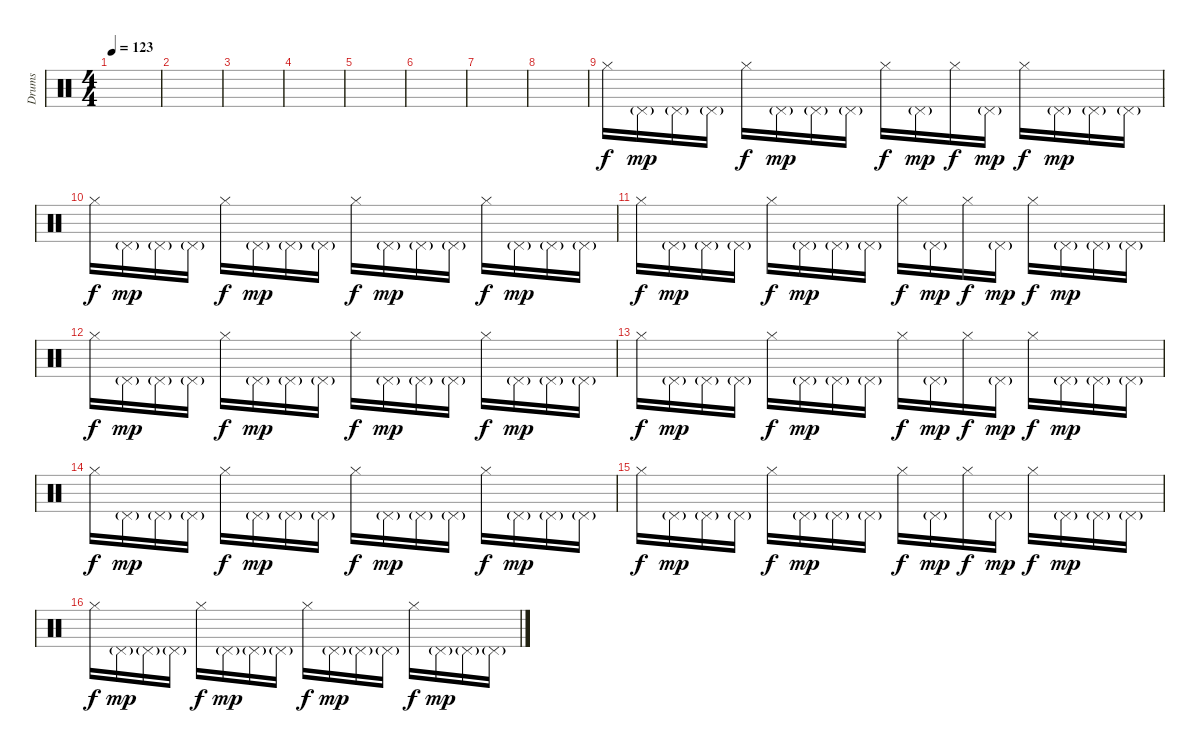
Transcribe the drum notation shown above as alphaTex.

\track ("Drums" "Drums") {instrument percussion}
\staff {score}
\articulation defaults
\ts (4 4)
\tempo 123
\clef neutral
\ks c
|
|
|
|
|
|
|
|
"Hi-Hat (closed)".16{dy f} "Pedal Hi-Hat (hit)"{g}.16{dy mp} "Pedal Hi-Hat (hit)"{g}.16 "Pedal Hi-Hat (hit)"{g}.16 "Hi-Hat (closed)".16{dy f} "Pedal Hi-Hat (hit)"{g}.16{dy mp} "Pedal Hi-Hat (hit)"{g}.16 "Pedal Hi-Hat (hit)"{g}.16 "Hi-Hat (closed)".16{dy f} "Pedal Hi-Hat (hit)"{g}.16{dy mp} "Hi-Hat (closed)".16{dy f} "Pedal Hi-Hat (hit)"{g}.16{dy mp} "Hi-Hat (closed)".16{dy f} "Pedal Hi-Hat (hit)"{g}.16{dy mp} "Pedal Hi-Hat (hit)"{g}.16 "Pedal Hi-Hat (hit)"{g}.16 |
"Hi-Hat (closed)".16{dy f} "Pedal Hi-Hat (hit)"{g}.16{dy mp} "Pedal Hi-Hat (hit)"{g}.16 "Pedal Hi-Hat (hit)"{g}.16 "Hi-Hat (closed)".16{dy f} "Pedal Hi-Hat (hit)"{g}.16{dy mp} "Pedal Hi-Hat (hit)"{g}.16 "Pedal Hi-Hat (hit)"{g}.16 "Hi-Hat (closed)".16{dy f} "Pedal Hi-Hat (hit)"{g}.16{dy mp} "Pedal Hi-Hat (hit)"{g}.16 "Pedal Hi-Hat (hit)"{g}.16 "Hi-Hat (closed)".16{dy f} "Pedal Hi-Hat (hit)"{g}.16{dy mp} "Pedal Hi-Hat (hit)"{g}.16 "Pedal Hi-Hat (hit)"{g}.16 |
"Hi-Hat (closed)".16{dy f} "Pedal Hi-Hat (hit)"{g}.16{dy mp} "Pedal Hi-Hat (hit)"{g}.16 "Pedal Hi-Hat (hit)"{g}.16 "Hi-Hat (closed)".16{dy f} "Pedal Hi-Hat (hit)"{g}.16{dy mp} "Pedal Hi-Hat (hit)"{g}.16 "Pedal Hi-Hat (hit)"{g}.16 "Hi-Hat (closed)".16{dy f} "Pedal Hi-Hat (hit)"{g}.16{dy mp} "Hi-Hat (closed)".16{dy f} "Pedal Hi-Hat (hit)"{g}.16{dy mp} "Hi-Hat (closed)".16{dy f} "Pedal Hi-Hat (hit)"{g}.16{dy mp} "Pedal Hi-Hat (hit)"{g}.16 "Pedal Hi-Hat (hit)"{g}.16 |
"Hi-Hat (closed)".16{dy f} "Pedal Hi-Hat (hit)"{g}.16{dy mp} "Pedal Hi-Hat (hit)"{g}.16 "Pedal Hi-Hat (hit)"{g}.16 "Hi-Hat (closed)".16{dy f} "Pedal Hi-Hat (hit)"{g}.16{dy mp} "Pedal Hi-Hat (hit)"{g}.16 "Pedal Hi-Hat (hit)"{g}.16 "Hi-Hat (closed)".16{dy f} "Pedal Hi-Hat (hit)"{g}.16{dy mp} "Pedal Hi-Hat (hit)"{g}.16 "Pedal Hi-Hat (hit)"{g}.16 "Hi-Hat (closed)".16{dy f} "Pedal Hi-Hat (hit)"{g}.16{dy mp} "Pedal Hi-Hat (hit)"{g}.16 "Pedal Hi-Hat (hit)"{g}.16 |
"Hi-Hat (closed)".16{dy f} "Pedal Hi-Hat (hit)"{g}.16{dy mp} "Pedal Hi-Hat (hit)"{g}.16 "Pedal Hi-Hat (hit)"{g}.16 "Hi-Hat (closed)".16{dy f} "Pedal Hi-Hat (hit)"{g}.16{dy mp} "Pedal Hi-Hat (hit)"{g}.16 "Pedal Hi-Hat (hit)"{g}.16 "Hi-Hat (closed)".16{dy f} "Pedal Hi-Hat (hit)"{g}.16{dy mp} "Hi-Hat (closed)".16{dy f} "Pedal Hi-Hat (hit)"{g}.16{dy mp} "Hi-Hat (closed)".16{dy f} "Pedal Hi-Hat (hit)"{g}.16{dy mp} "Pedal Hi-Hat (hit)"{g}.16 "Pedal Hi-Hat (hit)"{g}.16 |
"Hi-Hat (closed)".16{dy f} "Pedal Hi-Hat (hit)"{g}.16{dy mp} "Pedal Hi-Hat (hit)"{g}.16 "Pedal Hi-Hat (hit)"{g}.16 "Hi-Hat (closed)".16{dy f} "Pedal Hi-Hat (hit)"{g}.16{dy mp} "Pedal Hi-Hat (hit)"{g}.16 "Pedal Hi-Hat (hit)"{g}.16 "Hi-Hat (closed)".16{dy f} "Pedal Hi-Hat (hit)"{g}.16{dy mp} "Pedal Hi-Hat (hit)"{g}.16 "Pedal Hi-Hat (hit)"{g}.16 "Hi-Hat (closed)".16{dy f} "Pedal Hi-Hat (hit)"{g}.16{dy mp} "Pedal Hi-Hat (hit)"{g}.16 "Pedal Hi-Hat (hit)"{g}.16 |
"Hi-Hat (closed)".16{dy f} "Pedal Hi-Hat (hit)"{g}.16{dy mp} "Pedal Hi-Hat (hit)"{g}.16 "Pedal Hi-Hat (hit)"{g}.16 "Hi-Hat (closed)".16{dy f} "Pedal Hi-Hat (hit)"{g}.16{dy mp} "Pedal Hi-Hat (hit)"{g}.16 "Pedal Hi-Hat (hit)"{g}.16 "Hi-Hat (closed)".16{dy f} "Pedal Hi-Hat (hit)"{g}.16{dy mp} "Hi-Hat (closed)".16{dy f} "Pedal Hi-Hat (hit)"{g}.16{dy mp} "Hi-Hat (closed)".16{dy f} "Pedal Hi-Hat (hit)"{g}.16{dy mp} "Pedal Hi-Hat (hit)"{g}.16 "Pedal Hi-Hat (hit)"{g}.16 |
"Hi-Hat (closed)".16{dy f} "Pedal Hi-Hat (hit)"{g}.16{dy mp} "Pedal Hi-Hat (hit)"{g}.16 "Pedal Hi-Hat (hit)"{g}.16 "Hi-Hat (closed)".16{dy f} "Pedal Hi-Hat (hit)"{g}.16{dy mp} "Pedal Hi-Hat (hit)"{g}.16 "Pedal Hi-Hat (hit)"{g}.16 "Hi-Hat (closed)".16{dy f} "Pedal Hi-Hat (hit)"{g}.16{dy mp} "Pedal Hi-Hat (hit)"{g}.16 "Pedal Hi-Hat (hit)"{g}.16 "Hi-Hat (closed)".16{dy f} "Pedal Hi-Hat (hit)"{g}.16{dy mp} "Pedal Hi-Hat (hit)"{g}.16 "Pedal Hi-Hat (hit)"{g}.16
